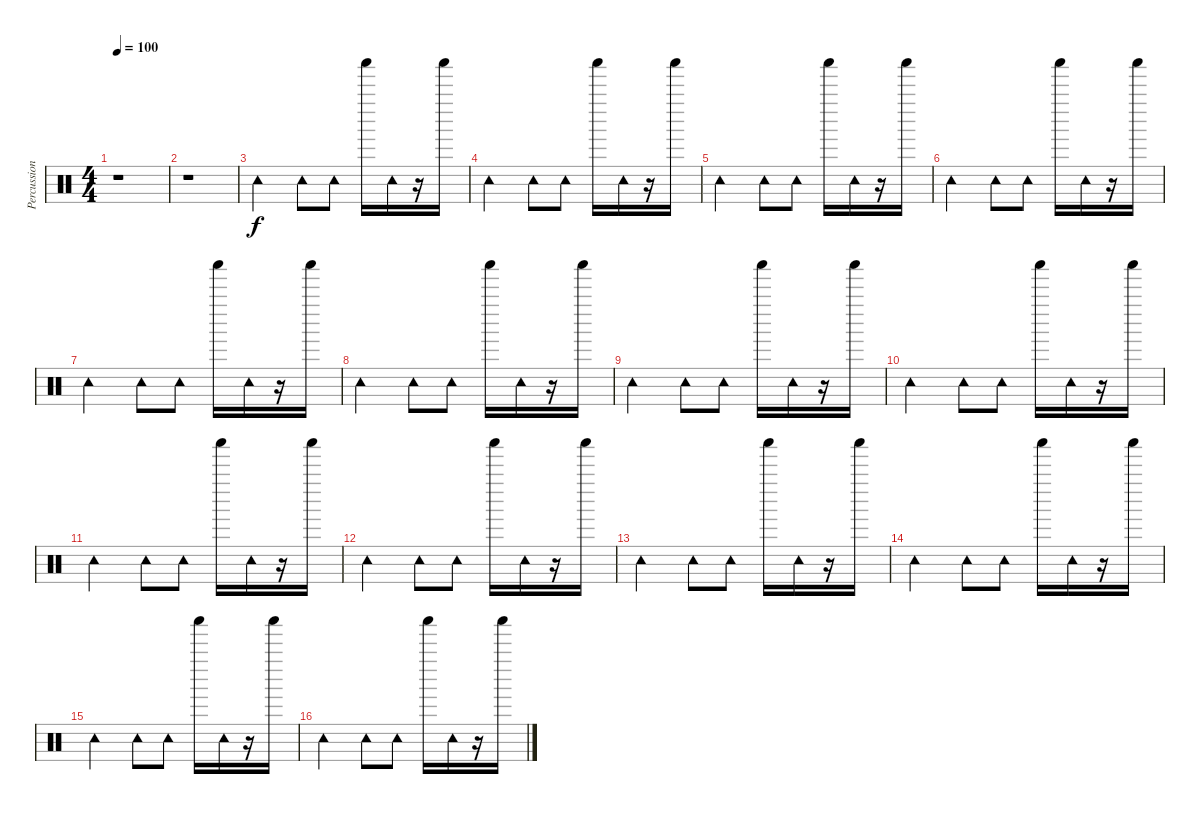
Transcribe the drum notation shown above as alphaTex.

\track ("Percussion" "Percussion") {instrument percussion}
\staff {score}
\articulation defaults
\ts (4 4)
\tempo 100
\clef neutral
\ks c
r.1{dy f} |
r.1 |
"Tambourine (hit)".2 "Tambourine (hit)".8 "Tambourine (hit)".8 "Shaker (hit)".16 "Tambourine (hit)".16 r.16 "Shaker (hit)".16 |
"Tambourine (hit)".2 "Tambourine (hit)".8 "Tambourine (hit)".8 "Shaker (hit)".16 "Tambourine (hit)".16 r.16 "Shaker (hit)".16 |
"Tambourine (hit)".2 "Tambourine (hit)".8 "Tambourine (hit)".8 "Shaker (hit)".16 "Tambourine (hit)".16 r.16 "Shaker (hit)".16 |
"Tambourine (hit)".2 "Tambourine (hit)".8 "Tambourine (hit)".8 "Shaker (hit)".16 "Tambourine (hit)".16 r.16 "Shaker (hit)".16 |
"Tambourine (hit)".2 "Tambourine (hit)".8 "Tambourine (hit)".8 "Shaker (hit)".16 "Tambourine (hit)".16 r.16 "Shaker (hit)".16 |
"Tambourine (hit)".2 "Tambourine (hit)".8 "Tambourine (hit)".8 "Shaker (hit)".16 "Tambourine (hit)".16 r.16 "Shaker (hit)".16 |
"Tambourine (hit)".2 "Tambourine (hit)".8 "Tambourine (hit)".8 "Shaker (hit)".16 "Tambourine (hit)".16 r.16 "Shaker (hit)".16 |
"Tambourine (hit)".2 "Tambourine (hit)".8 "Tambourine (hit)".8 "Shaker (hit)".16 "Tambourine (hit)".16 r.16 "Shaker (hit)".16 |
"Tambourine (hit)".2 "Tambourine (hit)".8 "Tambourine (hit)".8 "Shaker (hit)".16 "Tambourine (hit)".16 r.16 "Shaker (hit)".16 |
"Tambourine (hit)".2 "Tambourine (hit)".8 "Tambourine (hit)".8 "Shaker (hit)".16 "Tambourine (hit)".16 r.16 "Shaker (hit)".16 |
"Tambourine (hit)".2 "Tambourine (hit)".8 "Tambourine (hit)".8 "Shaker (hit)".16 "Tambourine (hit)".16 r.16 "Shaker (hit)".16 |
"Tambourine (hit)".2 "Tambourine (hit)".8 "Tambourine (hit)".8 "Shaker (hit)".16 "Tambourine (hit)".16 r.16 "Shaker (hit)".16 |
"Tambourine (hit)".2 "Tambourine (hit)".8 "Tambourine (hit)".8 "Shaker (hit)".16 "Tambourine (hit)".16 r.16 "Shaker (hit)".16 |
"Tambourine (hit)".2 "Tambourine (hit)".8 "Tambourine (hit)".8 "Shaker (hit)".16 "Tambourine (hit)".16 r.16 "Shaker (hit)".16
